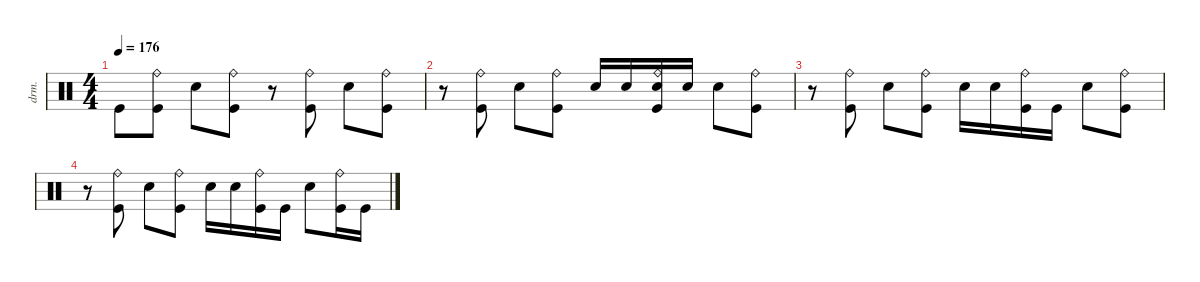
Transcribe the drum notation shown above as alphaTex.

\defaultSystemsLayout 4
\hideDynamics
\bracketExtendMode nobrackets
\track ("Gene Hoglan " "drm.") {instrument percussion}
\staff {score}
\articulation defaults
\ts (4 4)
\tempo 176
\clef neutral
\ks c "Kick (hit)".8{dy f}
("Ride (bell)" "Kick (hit)").8 "Snare (hit) 2".8 ("Ride (bell)" "Kick (hit)").8 r.8 ("Ride (bell)" "Kick (hit)").8 "Snare (hit) 2".8 ("Ride (bell)" "Kick (hit)").8 |
r.8 ("Ride (bell)" "Kick (hit)").8 "Snare (hit) 2".8 ("Ride (bell)" "Kick (hit)").8 "Snare (hit) 2".16 "Snare (hit) 2".16 ("Ride (bell)" "Snare (hit) 2" "Kick (hit)").16 "Snare (hit) 2".16 "Snare (hit) 2".8 ("Ride (bell)" "Kick (hit)").8 |
r.8 ("Ride (bell)" "Kick (hit)").8 "Snare (hit) 2".8 ("Ride (bell)" "Kick (hit)").8 "Snare (hit) 2".16 "Snare (hit) 2".16 ("Ride (bell)" "Kick (hit)").16 "Kick (hit)".16 "Snare (hit) 2".8 ("Ride (bell)" "Kick (hit)").8 |
r.8 ("Ride (bell)" "Kick (hit)").8 "Snare (hit) 2".8 ("Ride (bell)" "Kick (hit)").8 "Snare (hit) 2".16 "Snare (hit) 2".16 ("Ride (bell)" "Kick (hit)").16 "Kick (hit)".16 "Snare (hit) 2".8 ("Ride (bell)" "Kick (hit)").16 "Kick (hit)".16
